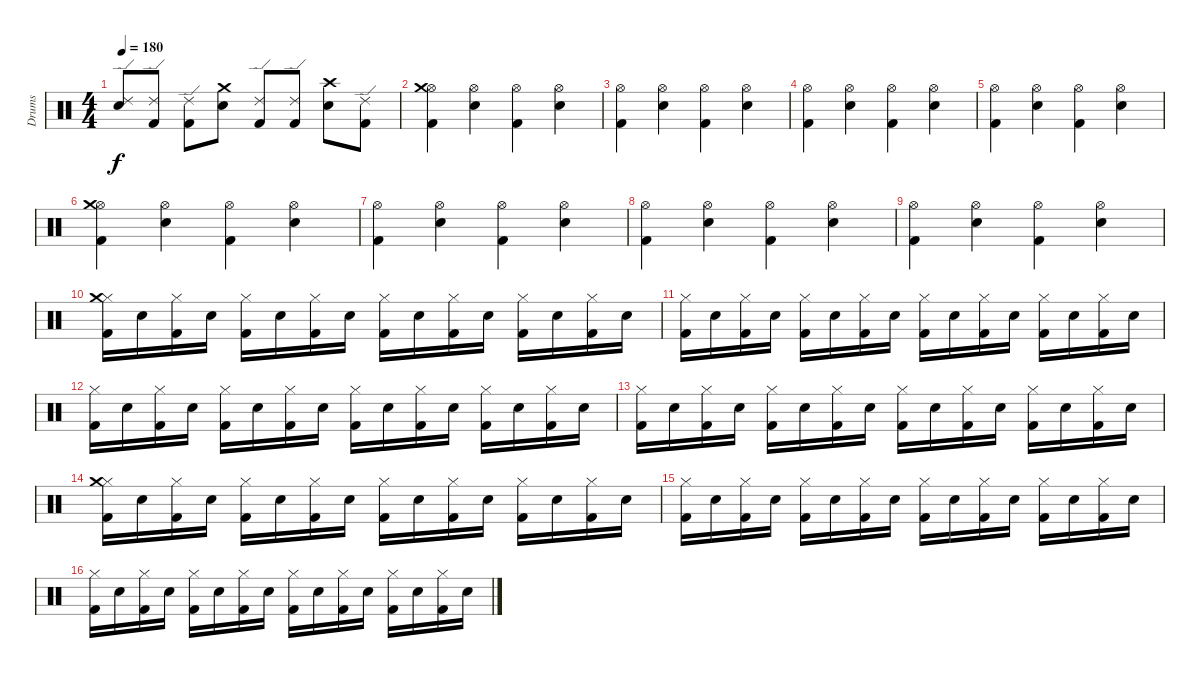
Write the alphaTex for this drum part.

\track ("Drums" "Drums") {instrument percussion}
\staff {score}
\articulation defaults
\ts (4 4)
\tempo 180
\clef neutral
\ks c
("Snare (hit) 2" "Ride (edge) 2").8{dy f} ("Kick (hit) 2" "Ride (edge) 2").8 ("Kick (hit) 2" "Ride (edge) 2").8 ("Snare (hit) 2" "Crash medium (hit)").8 ("Kick (hit) 2" "Ride (edge) 2").8 ("Kick (hit) 2" "Ride (edge) 2").8 ("Snare (hit) 2" "Crash high (hit)").8 ("Kick (hit) 2" "Ride (edge) 2").8 |
("Kick (hit) 2" "Hi-Hat (open)" "Crash medium (hit)").4 ("Snare (hit) 2" "Hi-Hat (open)").4 ("Kick (hit) 2" "Hi-Hat (open)").4 ("Snare (hit) 2" "Hi-Hat (open)").4 |
("Kick (hit) 2" "Hi-Hat (open)").4 ("Snare (hit) 2" "Hi-Hat (open)").4 ("Kick (hit) 2" "Hi-Hat (open)").4 ("Snare (hit) 2" "Hi-Hat (open)").4 |
("Kick (hit) 2" "Hi-Hat (open)").4 ("Snare (hit) 2" "Hi-Hat (open)").4 ("Kick (hit) 2" "Hi-Hat (open)").4 ("Snare (hit) 2" "Hi-Hat (open)").4 |
("Kick (hit) 2" "Hi-Hat (open)").4 ("Snare (hit) 2" "Hi-Hat (open)").4 ("Kick (hit) 2" "Hi-Hat (open)").4 ("Snare (hit) 2" "Hi-Hat (open)").4 |
("Kick (hit) 2" "Hi-Hat (open)" "Crash medium (hit)").4 ("Snare (hit) 2" "Hi-Hat (open)").4 ("Kick (hit) 2" "Hi-Hat (open)").4 ("Snare (hit) 2" "Hi-Hat (open)").4 |
("Kick (hit) 2" "Hi-Hat (open)").4 ("Snare (hit) 2" "Hi-Hat (open)").4 ("Kick (hit) 2" "Hi-Hat (open)").4 ("Snare (hit) 2" "Hi-Hat (open)").4 |
("Kick (hit) 2" "Hi-Hat (open)").4 ("Snare (hit) 2" "Hi-Hat (open)").4 ("Kick (hit) 2" "Hi-Hat (open)").4 ("Snare (hit) 2" "Hi-Hat (open)").4 |
("Kick (hit) 2" "Hi-Hat (open)").4 ("Snare (hit) 2" "Hi-Hat (open)").4 ("Kick (hit) 2" "Hi-Hat (open)").4 ("Snare (hit) 2" "Hi-Hat (open)").4 |
("Kick (hit) 2" "Hi-Hat (closed)" "Crash medium (hit)").16 "Snare (hit) 2".16 ("Kick (hit) 2" "Hi-Hat (closed)").16 "Snare (hit) 2".16 ("Kick (hit) 2" "Hi-Hat (closed)").16 "Snare (hit) 2".16 ("Kick (hit) 2" "Hi-Hat (closed)").16 "Snare (hit) 2".16 ("Kick (hit) 2" "Hi-Hat (closed)").16 "Snare (hit) 2".16 ("Kick (hit) 2" "Hi-Hat (closed)").16 "Snare (hit) 2".16 ("Kick (hit) 2" "Hi-Hat (closed)").16 "Snare (hit) 2".16 ("Kick (hit) 2" "Hi-Hat (closed)").16 "Snare (hit) 2".16 |
("Kick (hit) 2" "Hi-Hat (closed)").16 "Snare (hit) 2".16 ("Kick (hit) 2" "Hi-Hat (closed)").16 "Snare (hit) 2".16 ("Kick (hit) 2" "Hi-Hat (closed)").16 "Snare (hit) 2".16 ("Kick (hit) 2" "Hi-Hat (closed)").16 "Snare (hit) 2".16 ("Kick (hit) 2" "Hi-Hat (closed)").16 "Snare (hit) 2".16 ("Kick (hit) 2" "Hi-Hat (closed)").16 "Snare (hit) 2".16 ("Kick (hit) 2" "Hi-Hat (closed)").16 "Snare (hit) 2".16 ("Kick (hit) 2" "Hi-Hat (closed)").16 "Snare (hit) 2".16 |
("Kick (hit) 2" "Hi-Hat (closed)").16 "Snare (hit) 2".16 ("Kick (hit) 2" "Hi-Hat (closed)").16 "Snare (hit) 2".16 ("Kick (hit) 2" "Hi-Hat (closed)").16 "Snare (hit) 2".16 ("Kick (hit) 2" "Hi-Hat (closed)").16 "Snare (hit) 2".16 ("Kick (hit) 2" "Hi-Hat (closed)").16 "Snare (hit) 2".16 ("Kick (hit) 2" "Hi-Hat (closed)").16 "Snare (hit) 2".16 ("Kick (hit) 2" "Hi-Hat (closed)").16 "Snare (hit) 2".16 ("Kick (hit) 2" "Hi-Hat (closed)").16 "Snare (hit) 2".16 |
("Kick (hit) 2" "Hi-Hat (closed)").16 "Snare (hit) 2".16 ("Kick (hit) 2" "Hi-Hat (closed)").16 "Snare (hit) 2".16 ("Kick (hit) 2" "Hi-Hat (closed)").16 "Snare (hit) 2".16 ("Kick (hit) 2" "Hi-Hat (closed)").16 "Snare (hit) 2".16 ("Kick (hit) 2" "Hi-Hat (closed)").16 "Snare (hit) 2".16 ("Kick (hit) 2" "Hi-Hat (closed)").16 "Snare (hit) 2".16 ("Kick (hit) 2" "Hi-Hat (closed)").16 "Snare (hit) 2".16 ("Kick (hit) 2" "Hi-Hat (closed)").16 "Snare (hit) 2".16 |
("Kick (hit) 2" "Hi-Hat (closed)" "Crash medium (hit)").16 "Snare (hit) 2".16 ("Kick (hit) 2" "Hi-Hat (closed)").16 "Snare (hit) 2".16 ("Kick (hit) 2" "Hi-Hat (closed)").16 "Snare (hit) 2".16 ("Kick (hit) 2" "Hi-Hat (closed)").16 "Snare (hit) 2".16 ("Kick (hit) 2" "Hi-Hat (closed)").16 "Snare (hit) 2".16 ("Kick (hit) 2" "Hi-Hat (closed)").16 "Snare (hit) 2".16 ("Kick (hit) 2" "Hi-Hat (closed)").16 "Snare (hit) 2".16 ("Kick (hit) 2" "Hi-Hat (closed)").16 "Snare (hit) 2".16 |
("Kick (hit) 2" "Hi-Hat (closed)").16 "Snare (hit) 2".16 ("Kick (hit) 2" "Hi-Hat (closed)").16 "Snare (hit) 2".16 ("Kick (hit) 2" "Hi-Hat (closed)").16 "Snare (hit) 2".16 ("Kick (hit) 2" "Hi-Hat (closed)").16 "Snare (hit) 2".16 ("Kick (hit) 2" "Hi-Hat (closed)").16 "Snare (hit) 2".16 ("Kick (hit) 2" "Hi-Hat (closed)").16 "Snare (hit) 2".16 ("Kick (hit) 2" "Hi-Hat (closed)").16 "Snare (hit) 2".16 ("Kick (hit) 2" "Hi-Hat (closed)").16 "Snare (hit) 2".16 |
("Kick (hit) 2" "Hi-Hat (closed)").16 "Snare (hit) 2".16 ("Kick (hit) 2" "Hi-Hat (closed)").16 "Snare (hit) 2".16 ("Kick (hit) 2" "Hi-Hat (closed)").16 "Snare (hit) 2".16 ("Kick (hit) 2" "Hi-Hat (closed)").16 "Snare (hit) 2".16 ("Kick (hit) 2" "Hi-Hat (closed)").16 "Snare (hit) 2".16 ("Kick (hit) 2" "Hi-Hat (closed)").16 "Snare (hit) 2".16 ("Kick (hit) 2" "Hi-Hat (closed)").16 "Snare (hit) 2".16 ("Kick (hit) 2" "Hi-Hat (closed)").16 "Snare (hit) 2".16
